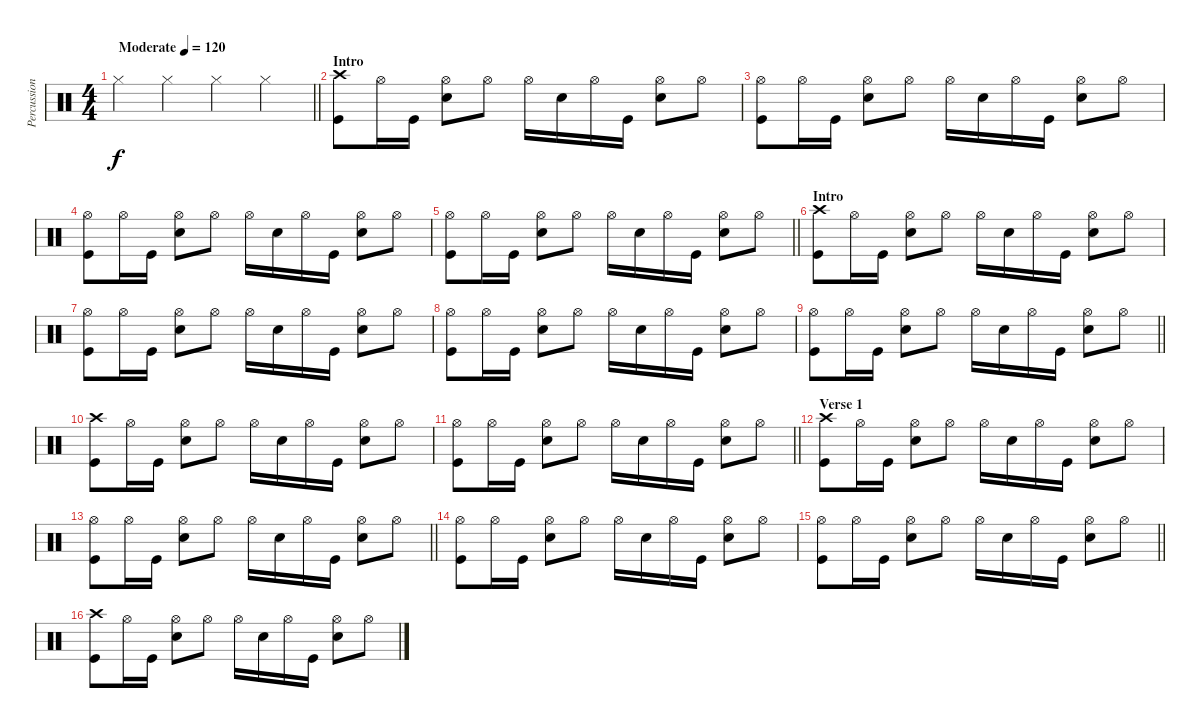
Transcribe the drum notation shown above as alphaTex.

\track ("Percussion" "Percussion") {instrument percussion}
\staff {score}
\articulation defaults
\ts (4 4)
\tempo (120 "Moderate")
\clef neutral
\barLineRight lightlight
\ks c "Hi-Hat (closed)".4{dy f} "Hi-Hat (closed)".4 "Hi-Hat (closed)".4 "Hi-Hat (closed)".4
|
\section ("" "Intro")
("Crash high (hit)" "Kick (hit)").8 "Hi-Hat (open)".16 "Kick (hit)".16 ("Hi-Hat (open)" "Snare (hit) 2").8 "Hi-Hat (open)".8 "Hi-Hat (open)".16 "Snare (hit) 2".16 "Hi-Hat (open)".16 "Kick (hit)".16 ("Hi-Hat (open)" "Snare (hit) 2").8 "Hi-Hat (open)".8 |
("Hi-Hat (open)" "Kick (hit)").8 "Hi-Hat (open)".16 "Kick (hit)".16 ("Hi-Hat (open)" "Snare (hit) 2").8 "Hi-Hat (open)".8 "Hi-Hat (open)".16 "Snare (hit) 2".16 "Hi-Hat (open)".16 "Kick (hit)".16 ("Hi-Hat (open)" "Snare (hit) 2").8 "Hi-Hat (open)".8 |
("Hi-Hat (open)" "Kick (hit)").8 "Hi-Hat (open)".16 "Kick (hit)".16 ("Hi-Hat (open)" "Snare (hit) 2").8 "Hi-Hat (open)".8 "Hi-Hat (open)".16 "Snare (hit) 2".16 "Hi-Hat (open)".16 "Kick (hit)".16 ("Hi-Hat (open)" "Snare (hit) 2").8 "Hi-Hat (open)".8 |
\barLineRight lightlight
("Hi-Hat (open)" "Kick (hit)").8 "Hi-Hat (open)".16 "Kick (hit)".16 ("Hi-Hat (open)" "Snare (hit) 2").8 "Hi-Hat (open)".8 "Hi-Hat (open)".16 "Snare (hit) 2".16 "Hi-Hat (open)".16 "Kick (hit)".16 ("Hi-Hat (open)" "Snare (hit) 2").8 "Hi-Hat (open)".8 |
\section ("" "Intro")
("Crash high (hit)" "Kick (hit)").8 "Hi-Hat (open)".16 "Kick (hit)".16 ("Hi-Hat (open)" "Snare (hit) 2").8 "Hi-Hat (open)".8 "Hi-Hat (open)".16 "Snare (hit) 2".16 "Hi-Hat (open)".16 "Kick (hit)".16 ("Hi-Hat (open)" "Snare (hit) 2").8 "Hi-Hat (open)".8 |
("Hi-Hat (open)" "Kick (hit)").8 "Hi-Hat (open)".16 "Kick (hit)".16 ("Hi-Hat (open)" "Snare (hit) 2").8 "Hi-Hat (open)".8 "Hi-Hat (open)".16 "Snare (hit) 2".16 "Hi-Hat (open)".16 "Kick (hit)".16 ("Hi-Hat (open)" "Snare (hit) 2").8 "Hi-Hat (open)".8 |
("Hi-Hat (open)" "Kick (hit)").8 "Hi-Hat (open)".16 "Kick (hit)".16 ("Hi-Hat (open)" "Snare (hit) 2").8 "Hi-Hat (open)".8 "Hi-Hat (open)".16 "Snare (hit) 2".16 "Hi-Hat (open)".16 "Kick (hit)".16 ("Hi-Hat (open)" "Snare (hit) 2").8 "Hi-Hat (open)".8 |
\barLineRight lightlight
("Hi-Hat (open)" "Kick (hit)").8 "Hi-Hat (open)".16 "Kick (hit)".16 ("Hi-Hat (open)" "Snare (hit) 2").8 "Hi-Hat (open)".8 "Hi-Hat (open)".16 "Snare (hit) 2".16 "Hi-Hat (open)".16 "Kick (hit)".16 ("Hi-Hat (open)" "Snare (hit) 2").8 "Hi-Hat (open)".8 |
("Crash high (hit)" "Kick (hit)").8 "Hi-Hat (open)".16 "Kick (hit)".16 ("Hi-Hat (open)" "Snare (hit) 2").8 "Hi-Hat (open)".8 "Hi-Hat (open)".16 "Snare (hit) 2".16 "Hi-Hat (open)".16 "Kick (hit)".16 ("Hi-Hat (open)" "Snare (hit) 2").8 "Hi-Hat (open)".8 |
\barLineRight lightlight
("Hi-Hat (open)" "Kick (hit)").8 "Hi-Hat (open)".16 "Kick (hit)".16 ("Hi-Hat (open)" "Snare (hit) 2").8 "Hi-Hat (open)".8 "Hi-Hat (open)".16 "Snare (hit) 2".16 "Hi-Hat (open)".16 "Kick (hit)".16 ("Hi-Hat (open)" "Snare (hit) 2").8 "Hi-Hat (open)".8 |
\section ("" "Verse 1")
("Crash high (hit)" "Kick (hit)").8 "Hi-Hat (open)".16 "Kick (hit)".16 ("Hi-Hat (open)" "Snare (hit) 2").8 "Hi-Hat (open)".8 "Hi-Hat (open)".16 "Snare (hit) 2".16 "Hi-Hat (open)".16 "Kick (hit)".16 ("Hi-Hat (open)" "Snare (hit) 2").8 "Hi-Hat (open)".8 |
\barLineRight lightlight
("Hi-Hat (open)" "Kick (hit)").8 "Hi-Hat (open)".16 "Kick (hit)".16 ("Hi-Hat (open)" "Snare (hit) 2").8 "Hi-Hat (open)".8 "Hi-Hat (open)".16 "Snare (hit) 2".16 "Hi-Hat (open)".16 "Kick (hit)".16 ("Hi-Hat (open)" "Snare (hit) 2").8 "Hi-Hat (open)".8 |
("Hi-Hat (open)" "Kick (hit)").8 "Hi-Hat (open)".16 "Kick (hit)".16 ("Hi-Hat (open)" "Snare (hit) 2").8 "Hi-Hat (open)".8 "Hi-Hat (open)".16 "Snare (hit) 2".16 "Hi-Hat (open)".16 "Kick (hit)".16 ("Hi-Hat (open)" "Snare (hit) 2").8 "Hi-Hat (open)".8 |
\barLineRight lightlight
("Hi-Hat (open)" "Kick (hit)").8 "Hi-Hat (open)".16 "Kick (hit)".16 ("Hi-Hat (open)" "Snare (hit) 2").8 "Hi-Hat (open)".8 "Hi-Hat (open)".16 "Snare (hit) 2".16 "Hi-Hat (open)".16 "Kick (hit)".16 ("Hi-Hat (open)" "Snare (hit) 2").8 "Hi-Hat (open)".8 |
("Crash high (hit)" "Kick (hit)").8 "Hi-Hat (open)".16 "Kick (hit)".16 ("Hi-Hat (open)" "Snare (hit) 2").8 "Hi-Hat (open)".8 "Hi-Hat (open)".16 "Snare (hit) 2".16 "Hi-Hat (open)".16 "Kick (hit)".16 ("Hi-Hat (open)" "Snare (hit) 2").8 "Hi-Hat (open)".8
